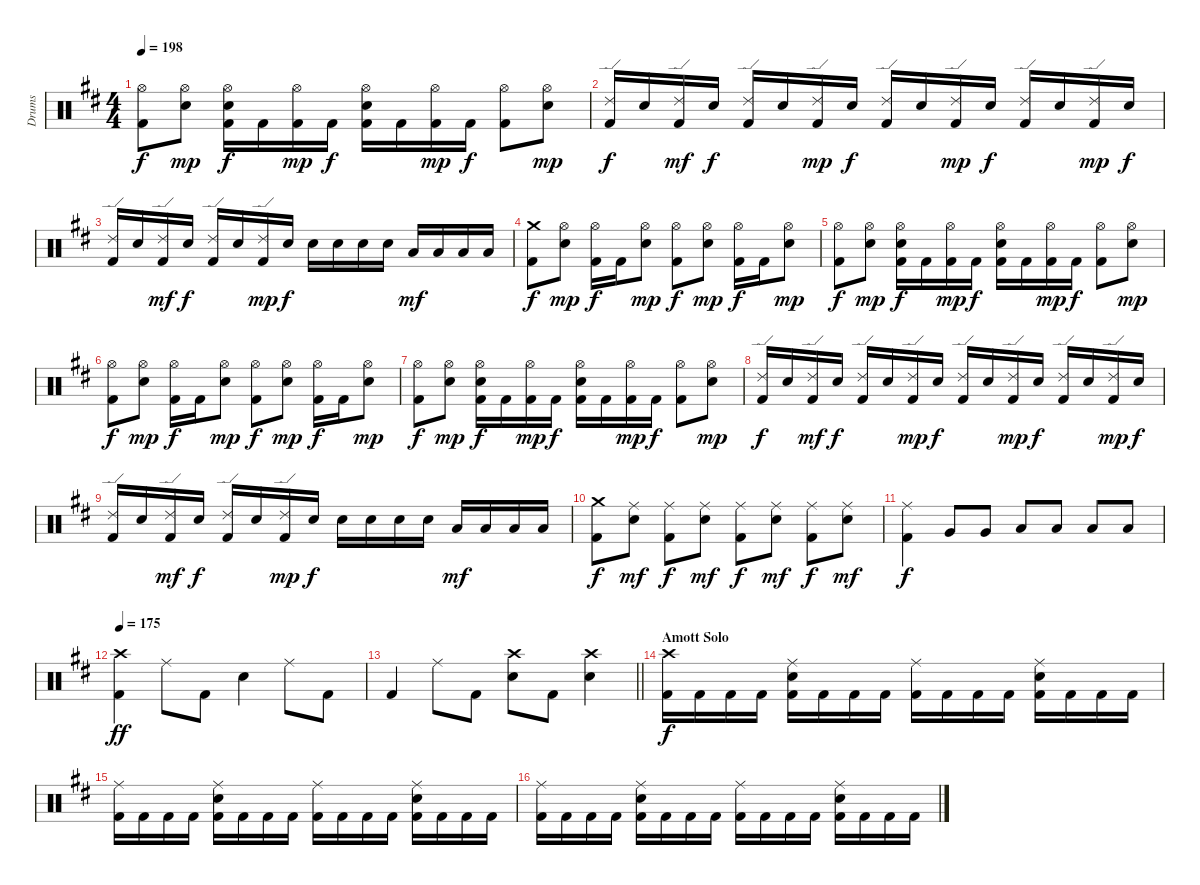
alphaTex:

\track ("Drums" "Drums") {instrument percussion}
\staff {score}
\articulation defaults
\ts (4 4)
\tempo 198
\clef neutral
\ks d
("Hi-Hat (open)" "Kick (hit) 2").8{dy f} ("Hi-Hat (open)" "Snare (hit) 2").8{dy mp} ("Hi-Hat (open)" "Snare (hit) 2" "Kick (hit) 2").16{dy f} "Kick (hit) 2".16 ("Hi-Hat (open)" "Kick (hit) 2").16{dy mp} "Kick (hit) 2".16{dy f} ("Hi-Hat (open)" "Snare (hit) 2" "Kick (hit) 2").16 "Kick (hit) 2".16 ("Hi-Hat (open)" "Kick (hit) 2").16{dy mp} "Kick (hit) 2".16{dy f} ("Hi-Hat (open)" "Kick (hit) 2").8 ("Hi-Hat (open)" "Snare (hit) 2").8{dy mp} |
("Ride (edge) 2" "Kick (hit) 2").16{dy f} "Snare (hit) 2".16 ("Ride (edge) 2" "Kick (hit) 2").16{dy mf} "Snare (hit) 2".16{dy f} ("Ride (edge) 2" "Kick (hit) 2").16 "Snare (hit) 2".16 ("Ride (edge) 2" "Kick (hit) 2").16{dy mp} "Snare (hit) 2".16{dy f} ("Ride (edge) 2" "Kick (hit) 2").16 "Snare (hit) 2".16 ("Ride (edge) 2" "Kick (hit) 2").16{dy mp} "Snare (hit) 2".16{dy f} ("Ride (edge) 2" "Kick (hit) 2").16 "Snare (hit) 2".16 ("Ride (edge) 2" "Kick (hit) 2").16{dy mp} "Snare (hit) 2".16{dy f} |
("Ride (edge) 2" "Kick (hit) 2").16 "Snare (hit) 2".16 ("Ride (edge) 2" "Kick (hit) 2").16{dy mf} "Snare (hit) 2".16{dy f} ("Ride (edge) 2" "Kick (hit) 2").16 "Snare (hit) 2".16 ("Ride (edge) 2" "Kick (hit) 2").16{dy mp} "Snare (hit) 2".16{dy f} "Snare (hit) 2".16 "Snare (hit) 2".16 "Snare (hit) 2".16 "Snare (hit) 2".16 "Low Floor Tom (hit)".16{dy mf} "Low Floor Tom (hit)".16 "Low Floor Tom (hit)".16 "Low Floor Tom (hit)".16 |
("Crash medium (hit)" "Kick (hit) 2").8{dy f} ("Hi-Hat (open)" "Snare (hit) 2").8{dy mp} ("Hi-Hat (open)" "Kick (hit) 2").16{dy f} "Kick (hit) 2".16 ("Hi-Hat (open)" "Snare (hit) 2").8{dy mp} ("Hi-Hat (open)" "Kick (hit) 2").8{dy f} ("Hi-Hat (open)" "Snare (hit) 2").8{dy mp} ("Hi-Hat (open)" "Kick (hit) 2").16{dy f} "Kick (hit) 2".16 ("Hi-Hat (open)" "Snare (hit) 2").8{dy mp} |
("Hi-Hat (open)" "Kick (hit) 2").8{dy f} ("Hi-Hat (open)" "Snare (hit) 2").8{dy mp} ("Hi-Hat (open)" "Snare (hit) 2" "Kick (hit) 2").16{dy f} "Kick (hit) 2".16 ("Hi-Hat (open)" "Kick (hit) 2").16{dy mp} "Kick (hit) 2".16{dy f} ("Hi-Hat (open)" "Snare (hit) 2" "Kick (hit) 2").16 "Kick (hit) 2".16 ("Hi-Hat (open)" "Kick (hit) 2").16{dy mp} "Kick (hit) 2".16{dy f} ("Hi-Hat (open)" "Kick (hit) 2").8 ("Hi-Hat (open)" "Snare (hit) 2").8{dy mp} |
("Hi-Hat (open)" "Kick (hit) 2").8{dy f} ("Hi-Hat (open)" "Snare (hit) 2").8{dy mp} ("Hi-Hat (open)" "Kick (hit) 2").16{dy f} "Kick (hit) 2".16 ("Hi-Hat (open)" "Snare (hit) 2").8{dy mp} ("Hi-Hat (open)" "Kick (hit) 2").8{dy f} ("Hi-Hat (open)" "Snare (hit) 2").8{dy mp} ("Hi-Hat (open)" "Kick (hit) 2").16{dy f} "Kick (hit) 2".16 ("Hi-Hat (open)" "Snare (hit) 2").8{dy mp} |
("Hi-Hat (open)" "Kick (hit) 2").8{dy f} ("Hi-Hat (open)" "Snare (hit) 2").8{dy mp} ("Hi-Hat (open)" "Snare (hit) 2" "Kick (hit) 2").16{dy f} "Kick (hit) 2".16 ("Hi-Hat (open)" "Kick (hit) 2").16{dy mp} "Kick (hit) 2".16{dy f} ("Hi-Hat (open)" "Snare (hit) 2" "Kick (hit) 2").16 "Kick (hit) 2".16 ("Hi-Hat (open)" "Kick (hit) 2").16{dy mp} "Kick (hit) 2".16{dy f} ("Hi-Hat (open)" "Kick (hit) 2").8 ("Hi-Hat (open)" "Snare (hit) 2").8{dy mp} |
("Ride (edge) 2" "Kick (hit) 2").16{dy f} "Snare (hit) 2".16 ("Ride (edge) 2" "Kick (hit) 2").16{dy mf} "Snare (hit) 2".16{dy f} ("Ride (edge) 2" "Kick (hit) 2").16 "Snare (hit) 2".16 ("Ride (edge) 2" "Kick (hit) 2").16{dy mp} "Snare (hit) 2".16{dy f} ("Ride (edge) 2" "Kick (hit) 2").16 "Snare (hit) 2".16 ("Ride (edge) 2" "Kick (hit) 2").16{dy mp} "Snare (hit) 2".16{dy f} ("Ride (edge) 2" "Kick (hit) 2").16 "Snare (hit) 2".16 ("Ride (edge) 2" "Kick (hit) 2").16{dy mp} "Snare (hit) 2".16{dy f} |
("Ride (edge) 2" "Kick (hit) 2").16 "Snare (hit) 2".16 ("Ride (edge) 2" "Kick (hit) 2").16{dy mf} "Snare (hit) 2".16{dy f} ("Ride (edge) 2" "Kick (hit) 2").16 "Snare (hit) 2".16 ("Ride (edge) 2" "Kick (hit) 2").16{dy mp} "Snare (hit) 2".16{dy f} "Snare (hit) 2".16 "Snare (hit) 2".16 "Snare (hit) 2".16 "Snare (hit) 2".16 "Low Floor Tom (hit)".16{dy mf} "Low Floor Tom (hit)".16 "Low Floor Tom (hit)".16 "Low Floor Tom (hit)".16 |
("Crash medium (hit)" "Kick (hit) 2").8{dy f} ("Ride (middle)" "Snare (hit) 2").8{dy mf} ("Ride (middle)" "Kick (hit) 2").8{dy f} ("Ride (middle)" "Snare (hit) 2").8{dy mf} ("Ride (middle)" "Kick (hit) 2").8{dy f} ("Ride (middle)" "Snare (hit) 2").8{dy mf} ("Ride (middle)" "Kick (hit) 2").8{dy f} ("Ride (middle)" "Snare (hit) 2").8{dy mf} |
("Ride (middle)" "Kick (hit) 2").4{dy f} "Very Low Tom (hit)".8 "Very Low Tom (hit)".8 "Low Tom (hit)".8 "Low Tom (hit)".8 "Low Tom (hit)".8 "Low Tom (hit)".8 |
\tempo 175
("Crash high (hit)" "Kick (hit) 2").4{dy ff} "Ride (middle)".8 "Kick (hit) 2".8 "Snare (hit) 2".4 "Ride (middle)".8 "Kick (hit) 2".8 |
\barLineRight lightlight "Kick (hit) 2".4 "Ride (middle)".8 "Kick (hit) 2".8
("Crash high (hit)" "Snare (hit) 2").8 "Kick (hit) 2".8 ("Crash high (hit)" "Snare (hit) 2").4 |
\section ("" "Amott Solo")
("Crash high (hit)" "Kick (hit) 2").16{dy f} "Kick (hit) 2".16 "Kick (hit) 2".16 "Kick (hit) 2".16 ("Ride (middle)" "Snare (hit) 2" "Kick (hit) 2").16 "Kick (hit) 2".16 "Kick (hit) 2".16 "Kick (hit) 2".16 ("Ride (middle)" "Kick (hit) 2").16 "Kick (hit) 2".16 "Kick (hit) 2".16 "Kick (hit) 2".16 ("Ride (middle)" "Snare (hit) 2" "Kick (hit) 2").16 "Kick (hit) 2".16 "Kick (hit) 2".16 "Kick (hit) 2".16 |
("Ride (middle)" "Kick (hit) 2").16 "Kick (hit) 2".16 "Kick (hit) 2".16 "Kick (hit) 2".16 ("Ride (middle)" "Snare (hit) 2" "Kick (hit) 2").16 "Kick (hit) 2".16 "Kick (hit) 2".16 "Kick (hit) 2".16 ("Ride (middle)" "Kick (hit) 2").16 "Kick (hit) 2".16 "Kick (hit) 2".16 "Kick (hit) 2".16 ("Ride (middle)" "Snare (hit) 2" "Kick (hit) 2").16 "Kick (hit) 2".16 "Kick (hit) 2".16 "Kick (hit) 2".16 |
("Ride (middle)" "Kick (hit) 2").16 "Kick (hit) 2".16 "Kick (hit) 2".16 "Kick (hit) 2".16 ("Ride (middle)" "Snare (hit) 2" "Kick (hit) 2").16 "Kick (hit) 2".16 "Kick (hit) 2".16 "Kick (hit) 2".16 ("Ride (middle)" "Kick (hit) 2").16 "Kick (hit) 2".16 "Kick (hit) 2".16 "Kick (hit) 2".16 ("Ride (middle)" "Snare (hit) 2" "Kick (hit) 2").16 "Kick (hit) 2".16 "Kick (hit) 2".16 "Kick (hit) 2".16
